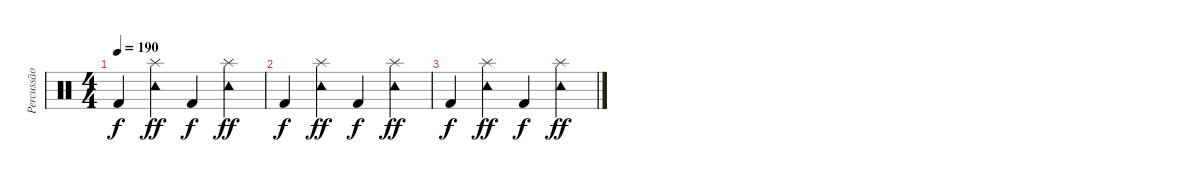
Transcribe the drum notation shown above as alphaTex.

\track ("Percussão" "Percussão") {instrument percussion}
\staff {score}
\articulation defaults
\ts (4 4)
\tempo 190
\clef neutral
\ks c "Kick (hit) 2".4{dy f}
("Splash (hit)" "Tambourine (hit)").4{dy ff} "Kick (hit) 2".4{dy f} ("Splash (hit)" "Tambourine (hit)").4{dy ff} |
"Kick (hit) 2".4{dy f} ("Splash (hit)" "Tambourine (hit)").4{dy ff} "Kick (hit) 2".4{dy f} ("Splash (hit)" "Tambourine (hit)").4{dy ff} |
"Kick (hit) 2".4{dy f} ("Splash (hit)" "Tambourine (hit)").4{dy ff} "Kick (hit) 2".4{dy f} ("Splash (hit)" "Tambourine (hit)").4{dy ff}
